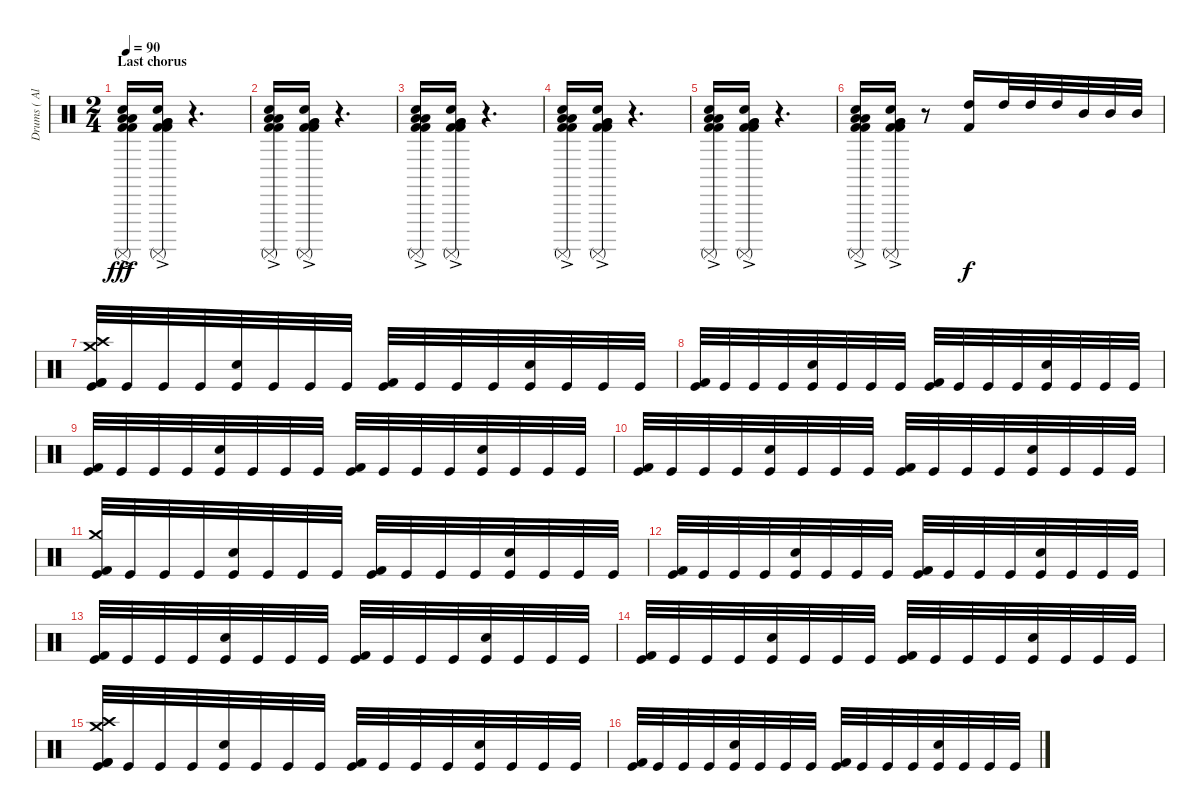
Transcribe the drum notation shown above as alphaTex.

\track ("Drums ( Alex Holzwarth)" "Drums ( Al") {instrument percussion}
\staff {score}
\articulation defaults
\ts (2 4)
\section ("" "Last chorus")
\tempo 90
\clef neutral
\ks c
("Surdo (mute)"{ac} "Low Tom (hit)"{ac} "Low Tom (hit)"{ac} "Snare (hit) 2" "Kick (hit) 2"{ac} "Kick (hit) 2"{ac}).16{dy fff} ("Surdo (mute)"{ac} "Very Low Tom (hit)"{ac} "Very Low Tom (hit)"{ac} "Snare (hit) 2" "Kick (hit) 2"{ac} "Kick (hit) 2"{ac}).16 r.4{d} |
("Surdo (mute)"{ac} "Low Tom (hit)"{ac} "Low Tom (hit)"{ac} "Snare (hit) 2" "Kick (hit) 2"{ac} "Kick (hit) 2"{ac}).16 ("Surdo (mute)"{ac} "Very Low Tom (hit)"{ac} "Very Low Tom (hit)"{ac} "Snare (hit) 2" "Kick (hit) 2"{ac} "Kick (hit) 2"{ac}).16 r.4{d} |
("Surdo (mute)"{ac} "Low Tom (hit)"{ac} "Low Tom (hit)"{ac} "Snare (hit) 2" "Kick (hit) 2"{ac} "Kick (hit) 2"{ac}).16 ("Surdo (mute)"{ac} "Very Low Tom (hit)"{ac} "Very Low Tom (hit)"{ac} "Snare (hit) 2" "Kick (hit) 2"{ac} "Kick (hit) 2"{ac}).16 r.4{d} |
("Surdo (mute)"{ac} "Low Tom (hit)"{ac} "Low Tom (hit)"{ac} "Snare (hit) 2" "Kick (hit) 2"{ac} "Kick (hit) 2"{ac}).16 ("Surdo (mute)"{ac} "Very Low Tom (hit)"{ac} "Very Low Tom (hit)"{ac} "Snare (hit) 2" "Kick (hit) 2"{ac} "Kick (hit) 2"{ac}).16 r.4{d} |
("Surdo (mute)"{ac} "Low Tom (hit)"{ac} "Low Tom (hit)"{ac} "Snare (hit) 2" "Kick (hit) 2"{ac} "Kick (hit) 2"{ac}).16 ("Surdo (mute)"{ac} "Very Low Tom (hit)"{ac} "Very Low Tom (hit)"{ac} "Snare (hit) 2" "Kick (hit) 2"{ac} "Kick (hit) 2"{ac}).16 r.4{d} |
("Surdo (mute)"{ac} "Low Tom (hit)"{ac} "Low Tom (hit)"{ac} "Snare (hit) 2" "Kick (hit) 2"{ac} "Kick (hit) 2"{ac}).16 ("Surdo (mute)"{ac} "Very Low Tom (hit)"{ac} "Very Low Tom (hit)"{ac} "Snare (hit) 2" "Kick (hit) 2"{ac} "Kick (hit) 2"{ac}).16 r.8 ("High Tom (hit)" "Kick (hit) 2").16{dy f} "High Tom (hit)".32 "High Tom (hit)".32 "High Tom (hit)".32 "Mid Tom (hit)".32 "Mid Tom (hit)".32 "Mid Tom (hit)".32 |
("Crash high (hit)" "Crash medium (hit)" "Kick (hit) 2" "Kick (hit) 2" "Kick (hit)").32 "Kick (hit)".32 "Kick (hit)".32 "Kick (hit)".32 ("Snare (hit) 2" "Kick (hit)").32 "Kick (hit)".32 "Kick (hit)".32 "Kick (hit)".32 ("Kick (hit) 2" "Kick (hit)").32 "Kick (hit)".32 "Kick (hit)".32 "Kick (hit)".32 ("Snare (hit) 2" "Kick (hit)").32 "Kick (hit)".32 "Kick (hit)".32 "Kick (hit)".32 |
("Kick (hit) 2" "Kick (hit)").32 "Kick (hit)".32 "Kick (hit)".32 "Kick (hit)".32 ("Snare (hit) 2" "Kick (hit)").32 "Kick (hit)".32 "Kick (hit)".32 "Kick (hit)".32 ("Kick (hit) 2" "Kick (hit)").32 "Kick (hit)".32 "Kick (hit)".32 "Kick (hit)".32 ("Snare (hit) 2" "Kick (hit)").32 "Kick (hit)".32 "Kick (hit)".32 "Kick (hit)".32 |
("Kick (hit) 2" "Kick (hit)").32 "Kick (hit)".32 "Kick (hit)".32 "Kick (hit)".32 ("Snare (hit) 2" "Kick (hit)").32 "Kick (hit)".32 "Kick (hit)".32 "Kick (hit)".32 ("Kick (hit) 2" "Kick (hit)").32 "Kick (hit)".32 "Kick (hit)".32 "Kick (hit)".32 ("Snare (hit) 2" "Kick (hit)").32 "Kick (hit)".32 "Kick (hit)".32 "Kick (hit)".32 |
("Kick (hit) 2" "Kick (hit)").32 "Kick (hit)".32 "Kick (hit)".32 "Kick (hit)".32 ("Snare (hit) 2" "Kick (hit)").32 "Kick (hit)".32 "Kick (hit)".32 "Kick (hit)".32 ("Kick (hit) 2" "Kick (hit)").32 "Kick (hit)".32 "Kick (hit)".32 "Kick (hit)".32 ("Snare (hit) 2" "Kick (hit)").32 "Kick (hit)".32 "Kick (hit)".32 "Kick (hit)".32 |
("Crash medium (hit)" "Kick (hit) 2" "Kick (hit)").32 "Kick (hit)".32 "Kick (hit)".32 "Kick (hit)".32 ("Snare (hit) 2" "Kick (hit)").32 "Kick (hit)".32 "Kick (hit)".32 "Kick (hit)".32 ("Kick (hit) 2" "Kick (hit)").32 "Kick (hit)".32 "Kick (hit)".32 "Kick (hit)".32 ("Snare (hit) 2" "Kick (hit)").32 "Kick (hit)".32 "Kick (hit)".32 "Kick (hit)".32 |
("Kick (hit) 2" "Kick (hit)").32 "Kick (hit)".32 "Kick (hit)".32 "Kick (hit)".32 ("Snare (hit) 2" "Kick (hit)").32 "Kick (hit)".32 "Kick (hit)".32 "Kick (hit)".32 ("Kick (hit) 2" "Kick (hit)").32 "Kick (hit)".32 "Kick (hit)".32 "Kick (hit)".32 ("Snare (hit) 2" "Kick (hit)").32 "Kick (hit)".32 "Kick (hit)".32 "Kick (hit)".32 |
("Kick (hit) 2" "Kick (hit)").32 "Kick (hit)".32 "Kick (hit)".32 "Kick (hit)".32 ("Snare (hit) 2" "Kick (hit)").32 "Kick (hit)".32 "Kick (hit)".32 "Kick (hit)".32 ("Kick (hit) 2" "Kick (hit)").32 "Kick (hit)".32 "Kick (hit)".32 "Kick (hit)".32 ("Snare (hit) 2" "Kick (hit)").32 "Kick (hit)".32 "Kick (hit)".32 "Kick (hit)".32 |
("Kick (hit) 2" "Kick (hit)").32 "Kick (hit)".32 "Kick (hit)".32 "Kick (hit)".32 ("Snare (hit) 2" "Kick (hit)").32 "Kick (hit)".32 "Kick (hit)".32 "Kick (hit)".32 ("Kick (hit) 2" "Kick (hit)").32 "Kick (hit)".32 "Kick (hit)".32 "Kick (hit)".32 ("Snare (hit) 2" "Kick (hit)").32 "Kick (hit)".32 "Kick (hit)".32 "Kick (hit)".32 |
("Crash high (hit)" "Crash medium (hit)" "Kick (hit) 2" "Kick (hit) 2" "Kick (hit)").32 "Kick (hit)".32 "Kick (hit)".32 "Kick (hit)".32 ("Snare (hit) 2" "Kick (hit)").32 "Kick (hit)".32 "Kick (hit)".32 "Kick (hit)".32 ("Kick (hit) 2" "Kick (hit)").32 "Kick (hit)".32 "Kick (hit)".32 "Kick (hit)".32 ("Snare (hit) 2" "Kick (hit)").32 "Kick (hit)".32 "Kick (hit)".32 "Kick (hit)".32 |
("Kick (hit) 2" "Kick (hit)").32 "Kick (hit)".32 "Kick (hit)".32 "Kick (hit)".32 ("Snare (hit) 2" "Kick (hit)").32 "Kick (hit)".32 "Kick (hit)".32 "Kick (hit)".32 ("Kick (hit) 2" "Kick (hit)").32 "Kick (hit)".32 "Kick (hit)".32 "Kick (hit)".32 ("Snare (hit) 2" "Kick (hit)").32 "Kick (hit)".32 "Kick (hit)".32 "Kick (hit)".32
